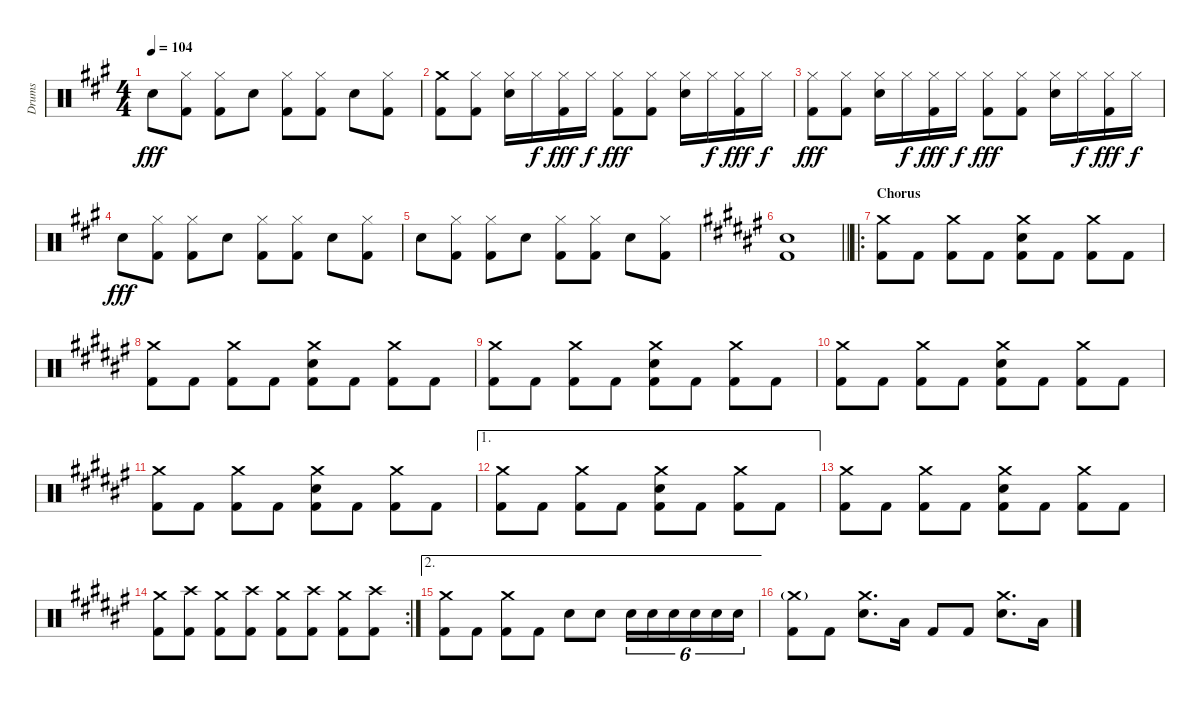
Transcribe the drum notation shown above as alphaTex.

\track ("Drums" "Drums") {instrument percussion}
\staff {score}
\articulation defaults
\ts (4 4)
\tempo 104
\clef neutral
\ks f#minor "Snare (hit) 2".8{dy fff}
("Hi-Hat (closed)" "Kick (hit) 2").8 ("Hi-Hat (closed)" "Kick (hit) 2").8 "Snare (hit) 2".8 ("Hi-Hat (closed)" "Kick (hit) 2").8 ("Hi-Hat (closed)" "Kick (hit) 2").8 "Snare (hit) 2".8 ("Hi-Hat (closed)" "Kick (hit) 2").8 |
("Crash medium (hit)" "Kick (hit) 2").8 ("Hi-Hat (closed)" "Kick (hit) 2").8 ("Hi-Hat (closed)" "Snare (hit) 2").16 "Hi-Hat (closed)".16{dy f} ("Hi-Hat (closed)" "Kick (hit) 2").16{dy fff} "Hi-Hat (closed)".16{dy f} ("Hi-Hat (closed)" "Kick (hit) 2").8{dy fff} ("Hi-Hat (closed)" "Kick (hit) 2").8 ("Hi-Hat (closed)" "Snare (hit) 2").16 "Hi-Hat (closed)".16{dy f} ("Hi-Hat (closed)" "Kick (hit) 2").16{dy fff} "Hi-Hat (closed)".16{dy f} |
("Hi-Hat (closed)" "Kick (hit) 2").8{dy fff} ("Hi-Hat (closed)" "Kick (hit) 2").8 ("Hi-Hat (closed)" "Snare (hit) 2").16 "Hi-Hat (closed)".16{dy f} ("Hi-Hat (closed)" "Kick (hit) 2").16{dy fff} "Hi-Hat (closed)".16{dy f} ("Hi-Hat (closed)" "Kick (hit) 2").8{dy fff} ("Hi-Hat (closed)" "Kick (hit) 2").8 ("Hi-Hat (closed)" "Snare (hit) 2").16 "Hi-Hat (closed)".16{dy f} ("Hi-Hat (closed)" "Kick (hit) 2").16{dy fff} "Hi-Hat (closed)".16{dy f} |
"Snare (hit) 2".8{dy fff} ("Hi-Hat (closed)" "Kick (hit) 2").8 ("Hi-Hat (closed)" "Kick (hit) 2").8 "Snare (hit) 2".8 ("Hi-Hat (closed)" "Kick (hit) 2").8 ("Hi-Hat (closed)" "Kick (hit) 2").8 "Snare (hit) 2".8 ("Hi-Hat (closed)" "Kick (hit) 2").8 |
"Snare (hit) 2".8 ("Hi-Hat (closed)" "Kick (hit) 2").8 ("Hi-Hat (closed)" "Kick (hit) 2").8 "Snare (hit) 2".8 ("Hi-Hat (closed)" "Kick (hit) 2").8 ("Hi-Hat (closed)" "Kick (hit) 2").8 "Snare (hit) 2".8 ("Hi-Hat (closed)" "Kick (hit) 2").8 |
\barLineRight lightlight
\ks f#
("Snare (hit) 2" "Kick (hit) 2").1 |
\ro
\section ("" "Chorus")
("Crash medium (hit)" "Kick (hit) 2").8 "Kick (hit) 2".8 ("Crash medium (hit)" "Kick (hit) 2").8 "Kick (hit) 2".8 ("Crash medium (hit)" "Snare (hit) 2" "Kick (hit) 2").8 "Kick (hit) 2".8 ("Crash medium (hit)" "Kick (hit) 2").8 "Kick (hit) 2".8 |
("Crash medium (hit)" "Kick (hit) 2").8 "Kick (hit) 2".8 ("Crash medium (hit)" "Kick (hit) 2").8 "Kick (hit) 2".8 ("Crash medium (hit)" "Snare (hit) 2" "Kick (hit) 2").8 "Kick (hit) 2".8 ("Crash medium (hit)" "Kick (hit) 2").8 "Kick (hit) 2".8 |
("Crash medium (hit)" "Kick (hit) 2").8 "Kick (hit) 2".8 ("Crash medium (hit)" "Kick (hit) 2").8 "Kick (hit) 2".8 ("Crash medium (hit)" "Snare (hit) 2" "Kick (hit) 2").8 "Kick (hit) 2".8 ("Crash medium (hit)" "Kick (hit) 2").8 "Kick (hit) 2".8 |
("Crash medium (hit)" "Kick (hit) 2").8 "Kick (hit) 2".8 ("Crash medium (hit)" "Kick (hit) 2").8 "Kick (hit) 2".8 ("Crash medium (hit)" "Snare (hit) 2" "Kick (hit) 2").8 "Kick (hit) 2".8 ("Crash medium (hit)" "Kick (hit) 2").8 "Kick (hit) 2".8 |
("Crash medium (hit)" "Kick (hit) 2").8 "Kick (hit) 2".8 ("Crash medium (hit)" "Kick (hit) 2").8 "Kick (hit) 2".8 ("Crash medium (hit)" "Snare (hit) 2" "Kick (hit) 2").8 "Kick (hit) 2".8 ("Crash medium (hit)" "Kick (hit) 2").8 "Kick (hit) 2".8 |
\ae 1
("Crash medium (hit)" "Kick (hit) 2").8 "Kick (hit) 2".8 ("Crash medium (hit)" "Kick (hit) 2").8 "Kick (hit) 2".8 ("Crash medium (hit)" "Snare (hit) 2" "Kick (hit) 2").8 "Kick (hit) 2".8 ("Crash medium (hit)" "Kick (hit) 2").8 "Kick (hit) 2".8 |
("Crash medium (hit)" "Kick (hit) 2").8 "Kick (hit) 2".8 ("Crash medium (hit)" "Kick (hit) 2").8 "Kick (hit) 2".8 ("Crash medium (hit)" "Snare (hit) 2" "Kick (hit) 2").8 "Kick (hit) 2".8 ("Crash medium (hit)" "Kick (hit) 2").8 "Kick (hit) 2".8 |
\rc 2
("Crash medium (hit)" "Kick (hit) 2").8 ("Crash high (hit)" "Kick (hit) 2").8 ("Crash medium (hit)" "Kick (hit) 2").8 ("Crash high (hit)" "Kick (hit) 2").8 ("Crash medium (hit)" "Kick (hit) 2").8 ("Crash high (hit)" "Kick (hit) 2").8 ("Crash medium (hit)" "Kick (hit) 2").8 ("Crash high (hit)" "Kick (hit) 2").8 |
\ae 2
("Crash medium (hit)" "Kick (hit) 2").8 "Kick (hit) 2".8 ("Crash medium (hit)" "Kick (hit) 2").8 "Kick (hit) 2".8 "Snare (hit) 2".8 "Snare (hit) 2".8 "Snare (hit) 2".16{tu (6 4)} "Snare (hit) 2".16{tu (6 4)} "Snare (hit) 2".16{tu (6 4)} "Snare (hit) 2".16{tu (6 4)} "Snare (hit) 2".16{tu (6 4)} "Snare (hit) 2".16{tu (6 4)} |
("Crash medium (hit)"{g} "Kick (hit) 2").8 "Kick (hit) 2".8 ("Crash medium (hit)" "Snare (hit) 2").8{d} "Low Floor Tom (hit)".16 "Kick (hit) 2".8 "Kick (hit) 2".8 ("Crash medium (hit)" "Snare (hit) 2").8{d} "Low Floor Tom (hit)".16
